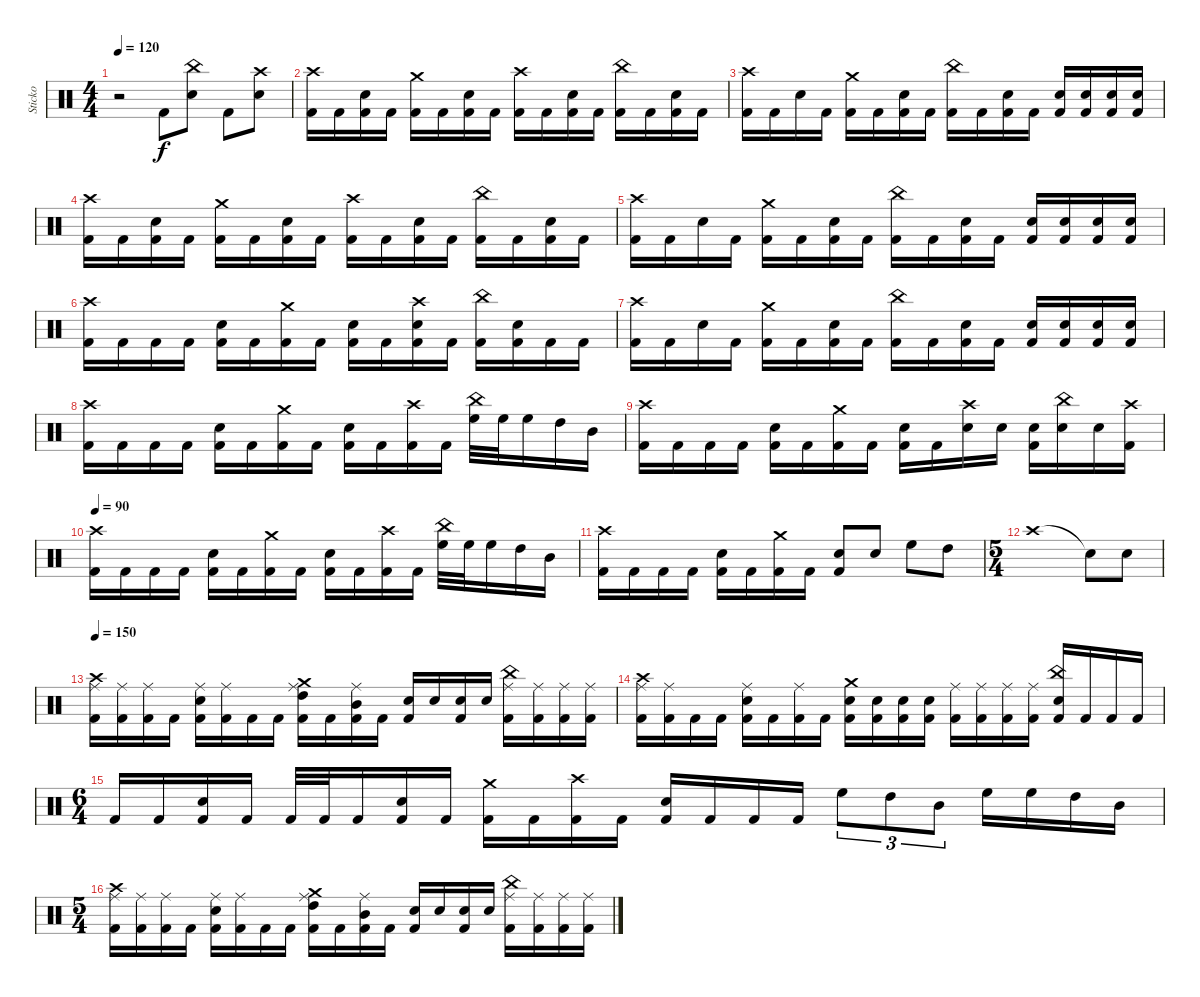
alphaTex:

\track ("Sticko" "Sticko") {instrument percussion}
\staff {score}
\articulation defaults
\ts (4 4)
\tempo 120
\clef neutral
\ks c
r.2{dy f} "Kick (hit) 2".8 ("China (hit)" "Snare (hit) 2").8 "Kick (hit) 2".8 ("Crash high (hit)" "Snare (hit) 2").8 |
("Crash high (hit)" "Kick (hit) 2").16 "Kick (hit) 2".16 ("Snare (hit) 2" "Kick (hit) 2").16 "Kick (hit) 2".16 ("Crash medium (hit)" "Kick (hit) 2").16 "Kick (hit) 2".16 ("Snare (hit) 2" "Kick (hit) 2").16 "Kick (hit) 2".16 ("Crash high (hit)" "Kick (hit) 2").16 "Kick (hit) 2".16 ("Snare (hit) 2" "Kick (hit) 2").16 "Kick (hit) 2".16 ("China (hit)" "Kick (hit) 2").16 "Kick (hit) 2".16 ("Snare (hit) 2" "Kick (hit) 2").16 "Kick (hit) 2".16 |
("Crash high (hit)" "Kick (hit) 2").16 "Kick (hit) 2".16 "Snare (hit) 2".16 "Kick (hit) 2".16 ("Crash medium (hit)" "Kick (hit) 2").16 "Kick (hit) 2".16 ("Snare (hit) 2" "Kick (hit) 2").16 "Kick (hit) 2".16 ("China (hit)" "Kick (hit) 2").16 "Kick (hit) 2".16 ("Snare (hit) 2" "Kick (hit) 2").16 "Kick (hit) 2".16 ("Snare (hit) 2" "Kick (hit) 2").16 ("Snare (hit) 2" "Kick (hit) 2").16 ("Snare (hit) 2" "Kick (hit) 2").16 ("Snare (hit) 2" "Kick (hit) 2").16 |
("Crash high (hit)" "Kick (hit) 2").16 "Kick (hit) 2".16 ("Snare (hit) 2" "Kick (hit) 2").16 "Kick (hit) 2".16 ("Crash medium (hit)" "Kick (hit) 2").16 "Kick (hit) 2".16 ("Snare (hit) 2" "Kick (hit) 2").16 "Kick (hit) 2".16 ("Crash high (hit)" "Kick (hit) 2").16 "Kick (hit) 2".16 ("Snare (hit) 2" "Kick (hit) 2").16 "Kick (hit) 2".16 ("China (hit)" "Kick (hit) 2").16 "Kick (hit) 2".16 ("Snare (hit) 2" "Kick (hit) 2").16 "Kick (hit) 2".16 |
("Crash high (hit)" "Kick (hit) 2").16 "Kick (hit) 2".16 "Snare (hit) 2".16 "Kick (hit) 2".16 ("Crash medium (hit)" "Kick (hit) 2").16 "Kick (hit) 2".16 ("Snare (hit) 2" "Kick (hit) 2").16 "Kick (hit) 2".16 ("China (hit)" "Kick (hit) 2").16 "Kick (hit) 2".16 ("Snare (hit) 2" "Kick (hit) 2").16 "Kick (hit) 2".16 ("Snare (hit) 2" "Kick (hit) 2").16 ("Snare (hit) 2" "Kick (hit) 2").16 ("Snare (hit) 2" "Kick (hit) 2").16 ("Snare (hit) 2" "Kick (hit) 2").16 |
("Crash high (hit)" "Kick (hit) 2").16 "Kick (hit) 2".16 "Kick (hit) 2".16 "Kick (hit) 2".16 ("Snare (hit) 2" "Kick (hit) 2").16 "Kick (hit) 2".16 ("Crash medium (hit)" "Kick (hit) 2").16 "Kick (hit) 2".16 ("Snare (hit) 2" "Kick (hit) 2").16 "Kick (hit) 2".16 ("Crash high (hit)" "Snare (hit) 2" "Kick (hit) 2").16 "Kick (hit) 2".16 ("China (hit)" "Kick (hit) 2").16 ("Snare (hit) 2" "Kick (hit) 2").16 "Kick (hit) 2".16 "Kick (hit) 2".16 |
("Crash high (hit)" "Kick (hit) 2").16 "Kick (hit) 2".16 "Snare (hit) 2".16 "Kick (hit) 2".16 ("Crash medium (hit)" "Kick (hit) 2").16 "Kick (hit) 2".16 ("Snare (hit) 2" "Kick (hit) 2").16 "Kick (hit) 2".16 ("China (hit)" "Kick (hit) 2").16 "Kick (hit) 2".16 ("Snare (hit) 2" "Kick (hit) 2").16 "Kick (hit) 2".16 ("Snare (hit) 2" "Kick (hit) 2").16 ("Snare (hit) 2" "Kick (hit) 2").16 ("Snare (hit) 2" "Kick (hit) 2").16 ("Snare (hit) 2" "Kick (hit) 2").16 |
("Crash high (hit)" "Kick (hit) 2").16 "Kick (hit) 2".16 "Kick (hit) 2".16 "Kick (hit) 2".16 ("Snare (hit) 2" "Kick (hit) 2").16 "Kick (hit) 2".16 ("Crash medium (hit)" "Kick (hit) 2").16 "Kick (hit) 2".16 ("Snare (hit) 2" "Kick (hit) 2").16 "Kick (hit) 2".16 ("Crash high (hit)" "Kick (hit) 2").16 "Kick (hit) 2".16 ("China (hit)" "High Floor Tom (hit)").32 "High Floor Tom (hit)".32 "High Floor Tom (hit)".16 "High Tom (hit)".16 "Mid Tom (hit)".16 |
("Crash high (hit)" "Kick (hit) 2").16 "Kick (hit) 2".16 "Kick (hit) 2".16 "Kick (hit) 2".16 ("Snare (hit) 2" "Kick (hit) 2").16 "Kick (hit) 2".16 ("Crash medium (hit)" "Kick (hit) 2").16 "Kick (hit) 2".16 ("Snare (hit) 2" "Kick (hit) 2").16 "Kick (hit) 2".16 ("Crash high (hit)" "Snare (hit) 2").16 "Snare (hit) 2".16 ("Snare (hit) 2" "Kick (hit) 2").16 ("China (hit)" "Snare (hit) 2").16 "Snare (hit) 2".16 ("Crash high (hit)" "Kick (hit) 2").16 |
\tempo 90
("Crash high (hit)" "Kick (hit) 2").16 "Kick (hit) 2".16 "Kick (hit) 2".16 "Kick (hit) 2".16 ("Snare (hit) 2" "Kick (hit) 2").16 "Kick (hit) 2".16 ("Crash medium (hit)" "Kick (hit) 2").16 "Kick (hit) 2".16 ("Snare (hit) 2" "Kick (hit) 2").16 "Kick (hit) 2".16 ("Crash high (hit)" "Kick (hit) 2").16 "Kick (hit) 2".16 ("China (hit)" "High Floor Tom (hit)").32 "High Floor Tom (hit)".32 "High Floor Tom (hit)".16 "High Tom (hit)".16 "Mid Tom (hit)".16 |
("Crash high (hit)" "Kick (hit) 2").16 "Kick (hit) 2".16 "Kick (hit) 2".16 "Kick (hit) 2".16 ("Snare (hit) 2" "Kick (hit) 2").16 "Kick (hit) 2".16 ("Crash medium (hit)" "Kick (hit) 2").16 "Kick (hit) 2".16 ("Snare (hit) 2" "Kick (hit) 2").8 "Snare (hit) 2".8 "High Floor Tom (hit)".8 "High Tom (hit)".8 |
\ts (5 4)
"Crash high (hit)".1 "Snare (hit)"{t}.8 "Snare (hit) 2".8 |
\tempo 150
("Crash high (hit)" "Ride (middle)" "Kick (hit) 2").16 ("Ride (middle)" "Kick (hit) 2").16 ("Ride (middle)" "Kick (hit) 2").16 "Kick (hit) 2".16 ("Ride (middle)" "Snare (hit) 2" "Kick (hit) 2").16 ("Ride (middle)" "Kick (hit) 2").16 "Kick (hit) 2".16 "Kick (hit) 2".16 ("Crash medium (hit)" "Ride (middle)" "High Tom (hit)" "Kick (hit) 2").16 "Kick (hit) 2".16 ("Ride (middle)" "Mid Tom (hit)" "Kick (hit) 2").16 "Kick (hit) 2".16 ("Snare (hit) 2" "Kick (hit) 2").16 "Snare (hit) 2".16 ("Snare (hit) 2" "Kick (hit) 2").16 "Snare (hit) 2".16 ("China (hit)" "Ride (middle)" "Kick (hit) 2").16 ("Ride (middle)" "Kick (hit) 2").16 ("Ride (middle)" "Kick (hit) 2").16 ("Ride (middle)" "Kick (hit) 2").16 |
("Crash high (hit)" "Ride (middle)" "Kick (hit) 2").16 ("Ride (middle)" "Kick (hit) 2").16 "Kick (hit) 2".16 "Kick (hit) 2".16 ("Ride (middle)" "Snare (hit) 2" "Kick (hit) 2").16 "Kick (hit) 2".16 ("Ride (middle)" "Kick (hit) 2").16 "Kick (hit) 2".16 ("Crash medium (hit)" "Snare (hit) 2" "Kick (hit) 2").16 ("Snare (hit) 2" "Kick (hit) 2").16 ("Snare (hit) 2" "Kick (hit) 2").16 ("Snare (hit) 2" "Kick (hit) 2").16 ("Ride (middle)" "Kick (hit) 2").16 ("Ride (middle)" "Kick (hit) 2").16 ("Ride (middle)" "Kick (hit) 2").16 ("Ride (middle)" "Kick (hit) 2").16 ("China (hit)" "Snare (hit) 2" "Kick (hit) 2").16 "Kick (hit) 2".16 "Kick (hit) 2".16 "Kick (hit) 2".16 |
\ts (6 4)
"Kick (hit) 2".16 "Kick (hit) 2".16 ("Snare (hit) 2" "Kick (hit) 2").16 "Kick (hit) 2".16 "Kick (hit) 2".32 "Kick (hit) 2".32 "Kick (hit) 2".16 ("Snare (hit) 2" "Kick (hit) 2").16 "Kick (hit) 2".16 ("Crash medium (hit)" "Kick (hit) 2").16 "Kick (hit) 2".16 ("Crash high (hit)" "Kick (hit) 2").16 "Kick (hit) 2".16 ("Snare (hit) 2" "Kick (hit) 2").16 "Kick (hit) 2".16 "Kick (hit) 2".16 "Kick (hit) 2".16 "High Floor Tom (hit)".8{tu (3 2)} "High Tom (hit)".8{tu (3 2)} "Mid Tom (hit)".8{tu (3 2)} "High Floor Tom (hit)".16 "High Floor Tom (hit)".16 "High Tom (hit)".16 "Mid Tom (hit)".16 |
\ts (5 4)
("Crash high (hit)" "Ride (middle)" "Kick (hit) 2").16 ("Ride (middle)" "Kick (hit) 2").16 ("Ride (middle)" "Kick (hit) 2").16 "Kick (hit) 2".16 ("Ride (middle)" "Snare (hit) 2" "Kick (hit) 2").16 ("Ride (middle)" "Kick (hit) 2").16 "Kick (hit) 2".16 "Kick (hit) 2".16 ("Crash medium (hit)" "Ride (middle)" "High Tom (hit)" "Kick (hit) 2").16 "Kick (hit) 2".16 ("Ride (middle)" "Mid Tom (hit)" "Kick (hit) 2").16 "Kick (hit) 2".16 ("Snare (hit) 2" "Kick (hit) 2").16 "Snare (hit) 2".16 ("Snare (hit) 2" "Kick (hit) 2").16 "Snare (hit) 2".16 ("China (hit)" "Ride (middle)" "Kick (hit) 2").16 ("Ride (middle)" "Kick (hit) 2").16 ("Ride (middle)" "Kick (hit) 2").16 ("Ride (middle)" "Kick (hit) 2").16
